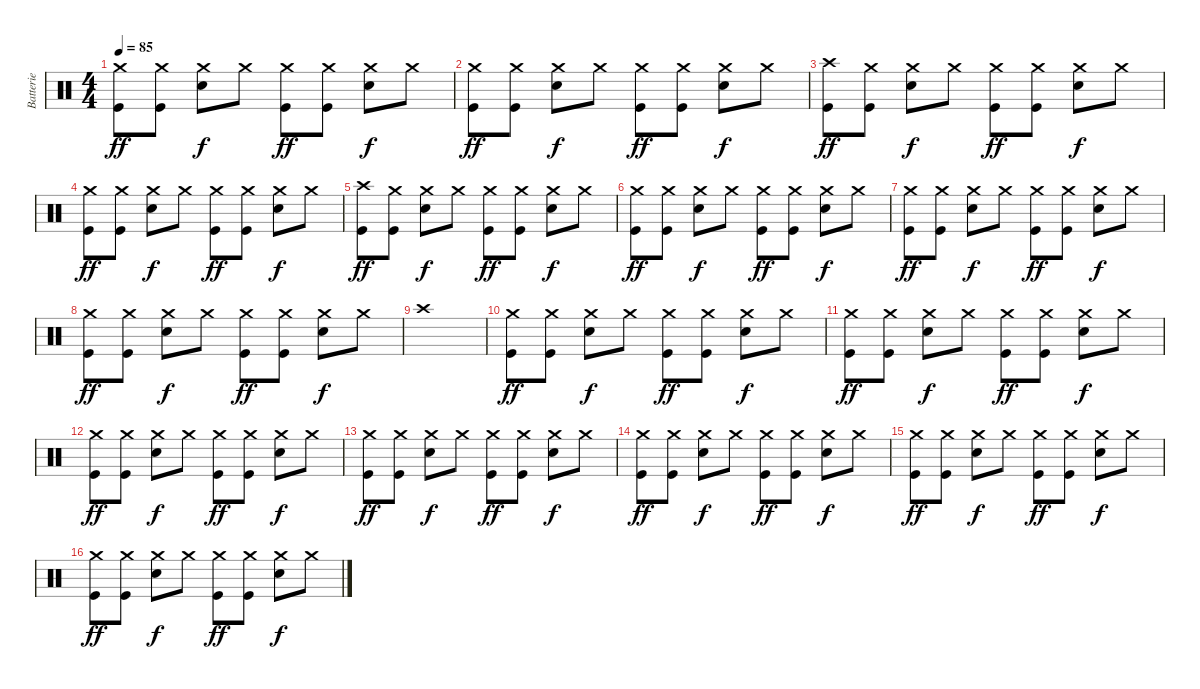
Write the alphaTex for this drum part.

\track ("Batterie" "Batterie") {instrument percussion}
\staff {score}
\articulation defaults
\ts (4 4)
\tempo 85
\clef neutral
\ks c
("Crash medium (hit)" "Kick (hit)").8{dy ff} ("Crash medium (hit)" "Kick (hit)").8 ("Crash medium (hit)" "Snare (hit) 2").8{dy f} "Crash medium (hit)".8 ("Crash medium (hit)" "Kick (hit)").8{dy ff} ("Crash medium (hit)" "Kick (hit)").8 ("Crash medium (hit)" "Snare (hit) 2").8{dy f} "Crash medium (hit)".8 |
("Crash medium (hit)" "Kick (hit)").8{dy ff} ("Crash medium (hit)" "Kick (hit)").8 ("Crash medium (hit)" "Snare (hit) 2").8{dy f} "Crash medium (hit)".8 ("Crash medium (hit)" "Kick (hit)").8{dy ff} ("Crash medium (hit)" "Kick (hit)").8 ("Crash medium (hit)" "Snare (hit) 2").8{dy f} "Crash medium (hit)".8 |
("Crash high (hit)" "Kick (hit)").8{dy ff} ("Crash medium (hit)" "Kick (hit)").8 ("Crash medium (hit)" "Snare (hit) 2").8{dy f} "Crash medium (hit)".8 ("Crash medium (hit)" "Kick (hit)").8{dy ff} ("Crash medium (hit)" "Kick (hit)").8 ("Crash medium (hit)" "Snare (hit) 2").8{dy f} "Crash medium (hit)".8 |
("Crash medium (hit)" "Kick (hit)").8{dy ff} ("Crash medium (hit)" "Kick (hit)").8 ("Crash medium (hit)" "Snare (hit) 2").8{dy f} "Crash medium (hit)".8 ("Crash medium (hit)" "Kick (hit)").8{dy ff} ("Crash medium (hit)" "Kick (hit)").8 ("Crash medium (hit)" "Snare (hit) 2").8{dy f} "Crash medium (hit)".8 |
("Crash high (hit)" "Kick (hit)").8{dy ff} ("Crash medium (hit)" "Kick (hit)").8 ("Crash medium (hit)" "Snare (hit) 2").8{dy f} "Crash medium (hit)".8 ("Crash medium (hit)" "Kick (hit)").8{dy ff} ("Crash medium (hit)" "Kick (hit)").8 ("Crash medium (hit)" "Snare (hit) 2").8{dy f} "Crash medium (hit)".8 |
("Crash medium (hit)" "Kick (hit)").8{dy ff} ("Crash medium (hit)" "Kick (hit)").8 ("Crash medium (hit)" "Snare (hit) 2").8{dy f} "Crash medium (hit)".8 ("Crash medium (hit)" "Kick (hit)").8{dy ff} ("Crash medium (hit)" "Kick (hit)").8 ("Crash medium (hit)" "Snare (hit) 2").8{dy f} "Crash medium (hit)".8 |
("Crash medium (hit)" "Kick (hit)").8{dy ff} ("Crash medium (hit)" "Kick (hit)").8 ("Crash medium (hit)" "Snare (hit) 2").8{dy f} "Crash medium (hit)".8 ("Crash medium (hit)" "Kick (hit)").8{dy ff} ("Crash medium (hit)" "Kick (hit)").8 ("Crash medium (hit)" "Snare (hit) 2").8{dy f} "Crash medium (hit)".8 |
("Crash medium (hit)" "Kick (hit)").8{dy ff} ("Crash medium (hit)" "Kick (hit)").8 ("Crash medium (hit)" "Snare (hit) 2").8{dy f} "Crash medium (hit)".8 ("Crash medium (hit)" "Kick (hit)").8{dy ff} ("Crash medium (hit)" "Kick (hit)").8 ("Crash medium (hit)" "Snare (hit) 2").8{dy f} "Crash medium (hit)".8 |
"Crash high (hit)".1 |
("Crash medium (hit)" "Kick (hit)").8{dy ff} ("Crash medium (hit)" "Kick (hit)").8 ("Crash medium (hit)" "Snare (hit) 2").8{dy f} "Crash medium (hit)".8 ("Crash medium (hit)" "Kick (hit)").8{dy ff} ("Crash medium (hit)" "Kick (hit)").8 ("Crash medium (hit)" "Snare (hit) 2").8{dy f} "Crash medium (hit)".8 |
("Crash medium (hit)" "Kick (hit)").8{dy ff} ("Crash medium (hit)" "Kick (hit)").8 ("Crash medium (hit)" "Snare (hit) 2").8{dy f} "Crash medium (hit)".8 ("Crash medium (hit)" "Kick (hit)").8{dy ff} ("Crash medium (hit)" "Kick (hit)").8 ("Crash medium (hit)" "Snare (hit) 2").8{dy f} "Crash medium (hit)".8 |
("Crash medium (hit)" "Kick (hit)").8{dy ff} ("Crash medium (hit)" "Kick (hit)").8 ("Crash medium (hit)" "Snare (hit) 2").8{dy f} "Crash medium (hit)".8 ("Crash medium (hit)" "Kick (hit)").8{dy ff} ("Crash medium (hit)" "Kick (hit)").8 ("Crash medium (hit)" "Snare (hit) 2").8{dy f} "Crash medium (hit)".8 |
("Crash medium (hit)" "Kick (hit)").8{dy ff} ("Crash medium (hit)" "Kick (hit)").8 ("Crash medium (hit)" "Snare (hit) 2").8{dy f} "Crash medium (hit)".8 ("Crash medium (hit)" "Kick (hit)").8{dy ff} ("Crash medium (hit)" "Kick (hit)").8 ("Crash medium (hit)" "Snare (hit) 2").8{dy f} "Crash medium (hit)".8 |
("Crash medium (hit)" "Kick (hit)").8{dy ff} ("Crash medium (hit)" "Kick (hit)").8 ("Crash medium (hit)" "Snare (hit) 2").8{dy f} "Crash medium (hit)".8 ("Crash medium (hit)" "Kick (hit)").8{dy ff} ("Crash medium (hit)" "Kick (hit)").8 ("Crash medium (hit)" "Snare (hit) 2").8{dy f} "Crash medium (hit)".8 |
("Crash medium (hit)" "Kick (hit)").8{dy ff} ("Crash medium (hit)" "Kick (hit)").8 ("Crash medium (hit)" "Snare (hit) 2").8{dy f} "Crash medium (hit)".8 ("Crash medium (hit)" "Kick (hit)").8{dy ff} ("Crash medium (hit)" "Kick (hit)").8 ("Crash medium (hit)" "Snare (hit) 2").8{dy f} "Crash medium (hit)".8 |
("Crash medium (hit)" "Kick (hit)").8{dy ff} ("Crash medium (hit)" "Kick (hit)").8 ("Crash medium (hit)" "Snare (hit) 2").8{dy f} "Crash medium (hit)".8 ("Crash medium (hit)" "Kick (hit)").8{dy ff} ("Crash medium (hit)" "Kick (hit)").8 ("Crash medium (hit)" "Snare (hit) 2").8{dy f} "Crash medium (hit)".8
